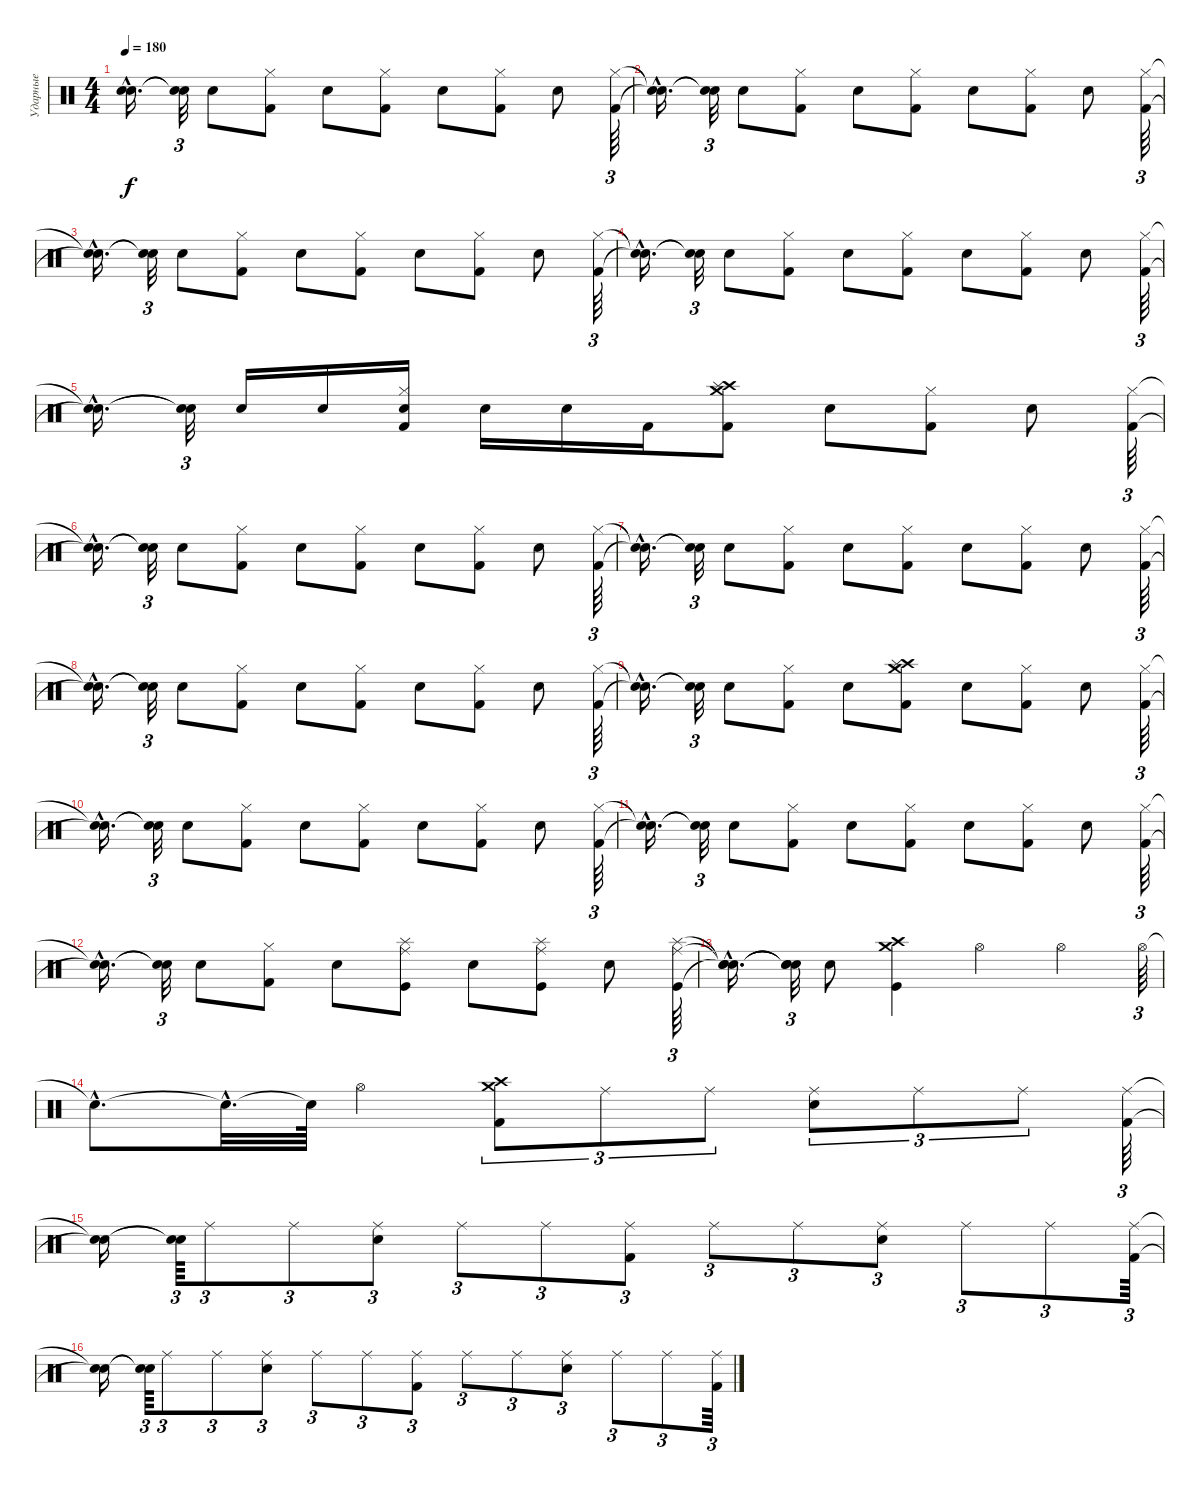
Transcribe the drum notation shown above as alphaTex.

\track ("Ударные" "Ударные") {instrument percussion}
\staff {score}
\articulation defaults
\ts (4 4)
\tempo 180
\clef neutral
\ks c
("Snare (hit)"{hac t} "Snare (hit)"{hac t}).16{d dy f} ("Snare (hit)"{t} "Snare (hit)"{t}).32{tu (3 2)} "Snare (hit) 2".8 ("Hi-Hat (closed)" "Kick (hit) 2").8 "Snare (hit) 2".8 ("Hi-Hat (closed)" "Kick (hit) 2").8 "Snare (hit) 2".8 ("Hi-Hat (closed)" "Kick (hit) 2").8 "Snare (hit) 2".8 ("Hi-Hat (closed)" "Kick (hit) 2").64{tu (3 2)} |
("Snare (hit)"{hac t} "Snare (hit)"{hac t}).16{d} ("Snare (hit)"{t} "Snare (hit)"{t}).32{tu (3 2)} "Snare (hit) 2".8 ("Hi-Hat (closed)" "Kick (hit) 2").8 "Snare (hit) 2".8 ("Hi-Hat (closed)" "Kick (hit) 2").8 "Snare (hit) 2".8 ("Hi-Hat (closed)" "Kick (hit) 2").8 "Snare (hit) 2".8 ("Hi-Hat (closed)" "Kick (hit) 2").64{tu (3 2)} |
("Snare (hit)"{hac t} "Snare (hit)"{hac t}).16{d} ("Snare (hit)"{t} "Snare (hit)"{t}).32{tu (3 2)} "Snare (hit) 2".8 ("Hi-Hat (closed)" "Kick (hit) 2").8 "Snare (hit) 2".8 ("Hi-Hat (closed)" "Kick (hit) 2").8 "Snare (hit) 2".8 ("Hi-Hat (closed)" "Kick (hit) 2").8 "Snare (hit) 2".8 ("Hi-Hat (closed)" "Kick (hit) 2").64{tu (3 2)} |
("Snare (hit)"{hac t} "Snare (hit)"{hac t}).16{d} ("Snare (hit)"{t} "Snare (hit)"{t}).32{tu (3 2)} "Snare (hit) 2".8 ("Hi-Hat (closed)" "Kick (hit) 2").8 "Snare (hit) 2".8 ("Hi-Hat (closed)" "Kick (hit) 2").8 "Snare (hit) 2".8 ("Hi-Hat (closed)" "Kick (hit) 2").8 "Snare (hit) 2".8 ("Hi-Hat (closed)" "Kick (hit) 2").64{tu (3 2)} |
("Snare (hit)"{hac t} "Snare (hit)"{hac t}).16{d} ("Snare (hit)"{t} "Snare (hit)"{t}).32{tu (3 2)} "Snare (hit) 2".16 "Snare (hit) 2".16 ("Hi-Hat (closed)" "Snare (hit) 2" "Kick (hit) 2").16 "Snare (hit) 2".16 "Snare (hit) 2".16 "Kick (hit) 2".16 ("Crash high (hit)" "Crash medium (hit)" "Splash (hit)" "Kick (hit) 2").8 "Snare (hit) 2".8 ("Hi-Hat (closed)" "Kick (hit) 2").8 "Snare (hit) 2".8 ("Hi-Hat (closed)" "Kick (hit) 2").64{tu (3 2)} |
("Snare (hit)"{hac t} "Snare (hit)"{hac t}).16{d} ("Snare (hit)"{t} "Snare (hit)"{t}).32{tu (3 2)} "Snare (hit) 2".8 ("Hi-Hat (closed)" "Kick (hit) 2").8 "Snare (hit) 2".8 ("Hi-Hat (closed)" "Kick (hit) 2").8 "Snare (hit) 2".8 ("Hi-Hat (closed)" "Kick (hit) 2").8 "Snare (hit) 2".8 ("Hi-Hat (closed)" "Kick (hit) 2").64{tu (3 2)} |
("Snare (hit)"{hac t} "Snare (hit)"{hac t}).16{d} ("Snare (hit)"{t} "Snare (hit)"{t}).32{tu (3 2)} "Snare (hit) 2".8 ("Hi-Hat (closed)" "Kick (hit) 2").8 "Snare (hit) 2".8 ("Hi-Hat (closed)" "Kick (hit) 2").8 "Snare (hit) 2".8 ("Hi-Hat (closed)" "Kick (hit) 2").8 "Snare (hit) 2".8 ("Hi-Hat (closed)" "Kick (hit) 2").64{tu (3 2)} |
("Snare (hit)"{hac t} "Snare (hit)"{hac t}).16{d} ("Snare (hit)"{t} "Snare (hit)"{t}).32{tu (3 2)} "Snare (hit) 2".8 ("Hi-Hat (closed)" "Kick (hit) 2").8 "Snare (hit) 2".8 ("Hi-Hat (closed)" "Kick (hit) 2").8 "Snare (hit) 2".8 ("Hi-Hat (closed)" "Kick (hit) 2").8 "Snare (hit) 2".8 ("Hi-Hat (closed)" "Kick (hit) 2").64{tu (3 2)} |
("Snare (hit)"{hac t} "Snare (hit)"{hac t}).16{d} ("Snare (hit)"{t} "Snare (hit)"{t}).32{tu (3 2)} "Snare (hit) 2".8 ("Hi-Hat (closed)" "Kick (hit) 2").8 "Snare (hit) 2".8 ("Crash high (hit)" "Crash medium (hit)" "Splash (hit)" "Kick (hit) 2").8 "Snare (hit) 2".8 ("Hi-Hat (closed)" "Kick (hit) 2").8 "Snare (hit) 2".8 ("Hi-Hat (closed)" "Kick (hit) 2").64{tu (3 2)} |
("Snare (hit)"{hac t} "Snare (hit)"{hac t}).16{d} ("Snare (hit)"{t} "Snare (hit)"{t}).32{tu (3 2)} "Snare (hit) 2".8 ("Hi-Hat (closed)" "Kick (hit) 2").8 "Snare (hit) 2".8 ("Hi-Hat (closed)" "Kick (hit) 2").8 "Snare (hit) 2".8 ("Hi-Hat (closed)" "Kick (hit) 2").8 "Snare (hit) 2".8 ("Hi-Hat (closed)" "Kick (hit) 2").64{tu (3 2)} |
("Snare (hit)"{hac t} "Snare (hit)"{hac t}).16{d} ("Snare (hit)"{t} "Snare (hit)"{t}).32{tu (3 2)} "Snare (hit) 2".8 ("Hi-Hat (closed)" "Kick (hit) 2").8 "Snare (hit) 2".8 ("Hi-Hat (closed)" "Kick (hit) 2").8 "Snare (hit) 2".8 ("Hi-Hat (closed)" "Kick (hit) 2").8 "Snare (hit) 2".8 ("Hi-Hat (closed)" "Kick (hit) 2").64{tu (3 2)} |
("Snare (hit)"{hac t} "Snare (hit)"{hac t}).16{d} ("Snare (hit)"{t} "Snare (hit)"{t}).32{tu (3 2)} "Snare (hit) 2".8 ("Hi-Hat (closed)" "Kick (hit) 2").8 "Snare (hit) 2".8 ("Ride (middle)" "Splash (hit)" "Kick (hit)").8 "Snare (hit) 2".8 ("Ride (middle)" "Splash (hit)" "Kick (hit)").8 "Snare (hit) 2".8 ("Ride (middle)" "Splash (hit)" "Kick (hit)").64{tu (3 2)} |
("Snare (hit)"{hac t} "Snare (hit)"{hac t} "Snare (hit)"{hac t}).16{d} ("Snare (hit)"{t} "Snare (hit)"{t} "Snare (hit)"{t}).32{tu (3 2)} "Snare (hit) 2".8 ("Crash medium (hit)" "Crash high (hit)" "Kick (hit)").4 "Hi-Hat (open)".4 "Hi-Hat (open)".4 "Hi-Hat (open)".64{tu (3 2)} |
"Snare (hit)"{hac t}.8{d} "Snare (hit)"{hac t}.32{d} "Snare (hit)"{t}.64 "Hi-Hat (open)".4 ("Crash high (hit)" "Crash medium (hit)" "Kick (hit) 2").8{tu (3 2)} "Ride (middle)".8{tu (3 2)} "Ride (middle)".8{tu (3 2)} ("Ride (middle)" "Snare (hit) 2").8{tu (3 2)} "Ride (middle)".8{tu (3 2)} "Ride (middle)".8{tu (3 2)} ("Ride (middle)" "Kick (hit) 2").64{tu (3 2)} |
("Snare (hit)"{t} "Snare (hit)"{t}).16 ("Snare (hit)"{t} "Snare (hit)"{t}).64{tu (3 2)} "Ride (middle)".8{tu (3 2)} "Ride (middle)".8{tu (3 2)} ("Ride (middle)" "Snare (hit) 2").8{tu (3 2)} "Ride (middle)".8{tu (3 2)} "Ride (middle)".8{tu (3 2)} ("Ride (middle)" "Kick (hit) 2").8{tu (3 2)} "Ride (middle)".8{tu (3 2)} "Ride (middle)".8{tu (3 2)} ("Ride (middle)" "Snare (hit) 2").8{tu (3 2)} "Ride (middle)".8{tu (3 2)} "Ride (middle)".8{tu (3 2)} ("Ride (middle)" "Kick (hit) 2").64{tu (3 2)} |
("Snare (hit)"{t} "Snare (hit)"{t}).16 ("Snare (hit)"{t} "Snare (hit)"{t}).64{tu (3 2)} "Ride (middle)".8{tu (3 2)} "Ride (middle)".8{tu (3 2)} ("Ride (middle)" "Snare (hit) 2").8{tu (3 2)} "Ride (middle)".8{tu (3 2)} "Ride (middle)".8{tu (3 2)} ("Ride (middle)" "Kick (hit) 2").8{tu (3 2)} "Ride (middle)".8{tu (3 2)} "Ride (middle)".8{tu (3 2)} ("Ride (middle)" "Snare (hit) 2").8{tu (3 2)} "Ride (middle)".8{tu (3 2)} "Ride (middle)".8{tu (3 2)} ("Ride (middle)" "Kick (hit) 2").64{tu (3 2)}
